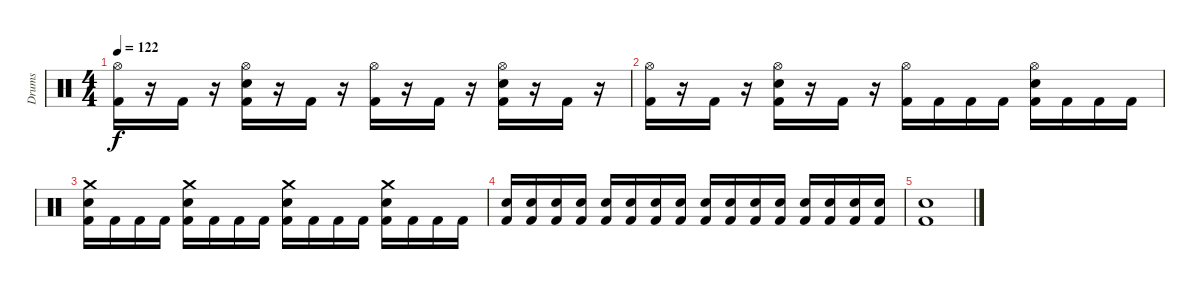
\track ("Drums" "Drums") {instrument percussion}
\staff {score}
\articulation defaults
\ts (4 4)
\tempo 122
\clef neutral
\ks c
("Hi-Hat (open)" "Kick (hit) 2").16{dy f} r.16 "Kick (hit) 2".16 r.16 ("Hi-Hat (open)" "Snare (hit) 2" "Kick (hit) 2").16 r.16 "Kick (hit) 2".16 r.16 ("Hi-Hat (open)" "Kick (hit) 2").16 r.16 "Kick (hit) 2".16 r.16 ("Hi-Hat (open)" "Snare (hit) 2" "Kick (hit) 2").16 r.16 "Kick (hit) 2".16 r.16 |
("Hi-Hat (open)" "Kick (hit) 2").16 r.16 "Kick (hit) 2".16 r.16 ("Hi-Hat (open)" "Snare (hit) 2" "Kick (hit) 2").16 r.16 "Kick (hit) 2".16 r.16 ("Hi-Hat (open)" "Kick (hit) 2").16 "Kick (hit) 2".16 "Kick (hit) 2".16 "Kick (hit) 2".16 ("Hi-Hat (open)" "Snare (hit) 2" "Kick (hit) 2").16 "Kick (hit) 2".16 "Kick (hit) 2".16 "Kick (hit) 2".16 |
("Crash medium (hit)" "Snare (hit) 2" "Kick (hit) 2").16 "Kick (hit) 2".16 "Kick (hit) 2".16 "Kick (hit) 2".16 ("Crash medium (hit)" "Snare (hit) 2" "Kick (hit) 2").16 "Kick (hit) 2".16 "Kick (hit) 2".16 "Kick (hit) 2".16 ("Crash medium (hit)" "Snare (hit) 2" "Kick (hit) 2").16 "Kick (hit) 2".16 "Kick (hit) 2".16 "Kick (hit) 2".16 ("Crash medium (hit)" "Snare (hit) 2" "Kick (hit) 2").16 "Kick (hit) 2".16 "Kick (hit) 2".16 "Kick (hit) 2".16 |
("Snare (hit) 2" "Kick (hit) 2").16 ("Snare (hit) 2" "Kick (hit) 2").16 ("Snare (hit) 2" "Kick (hit) 2").16 ("Snare (hit) 2" "Kick (hit) 2").16 ("Snare (hit) 2" "Kick (hit) 2").16 ("Snare (hit) 2" "Kick (hit) 2").16 ("Snare (hit) 2" "Kick (hit) 2").16 ("Snare (hit) 2" "Kick (hit) 2").16 ("Snare (hit) 2" "Kick (hit) 2").16 ("Snare (hit) 2" "Kick (hit) 2").16 ("Snare (hit) 2" "Kick (hit) 2").16 ("Snare (hit) 2" "Kick (hit) 2").16 ("Snare (hit) 2" "Kick (hit) 2").16 ("Snare (hit) 2" "Kick (hit) 2").16 ("Snare (hit) 2" "Kick (hit) 2").16 ("Snare (hit) 2" "Kick (hit) 2").16 |
("Snare (hit) 2" "Kick (hit) 2").1
